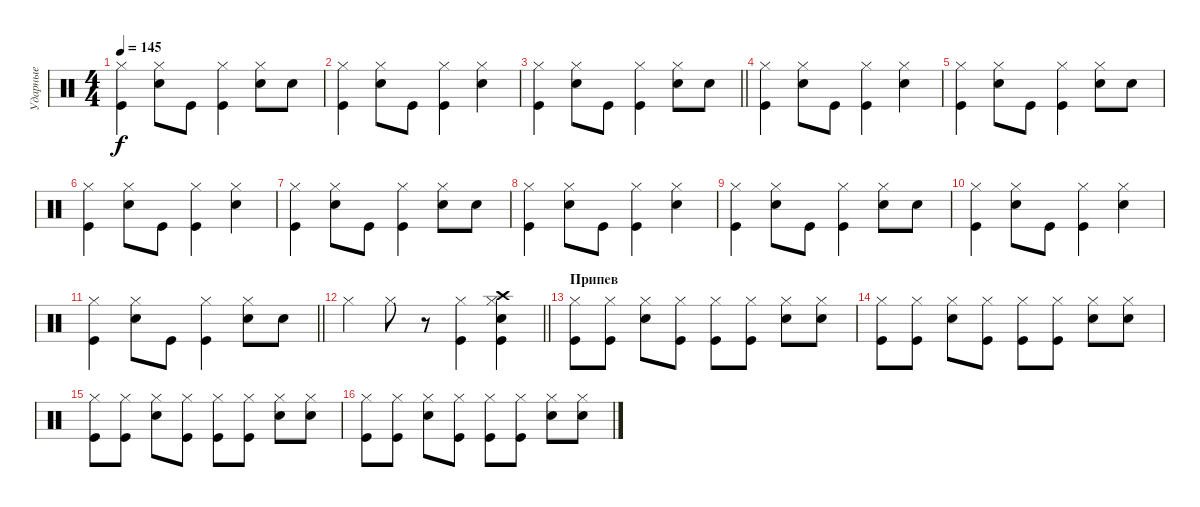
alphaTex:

\track ("Ударные" "Ударные") {instrument percussion bank 125}
\staff {score}
\articulation defaults
\ts (4 4)
\tempo 145
\clef neutral
\ks c
("Hi-Hat (closed)" "Kick (hit)").4{dy f} ("Hi-Hat (closed)" "Snare (hit) 2").8 "Kick (hit)".8 ("Hi-Hat (closed)" "Kick (hit)").4 ("Hi-Hat (closed)" "Snare (hit) 2").8 "Snare (hit) 2".8 |
("Hi-Hat (closed)" "Kick (hit)").4 ("Hi-Hat (closed)" "Snare (hit) 2").8 "Kick (hit)".8 ("Hi-Hat (closed)" "Kick (hit)").4 ("Hi-Hat (closed)" "Snare (hit) 2").4 |
\barLineRight lightlight
("Hi-Hat (closed)" "Kick (hit)").4 ("Hi-Hat (closed)" "Snare (hit) 2").8 "Kick (hit)".8 ("Hi-Hat (closed)" "Kick (hit)").4 ("Hi-Hat (closed)" "Snare (hit) 2").8 "Snare (hit) 2".8 |
("Hi-Hat (closed)" "Kick (hit)").4 ("Hi-Hat (closed)" "Snare (hit) 2").8 "Kick (hit)".8 ("Hi-Hat (closed)" "Kick (hit)").4 ("Hi-Hat (closed)" "Snare (hit) 2").4 |
("Hi-Hat (closed)" "Kick (hit)").4 ("Hi-Hat (closed)" "Snare (hit) 2").8 "Kick (hit)".8 ("Hi-Hat (closed)" "Kick (hit)").4 ("Hi-Hat (closed)" "Snare (hit) 2").8 "Snare (hit) 2".8 |
("Hi-Hat (closed)" "Kick (hit)").4 ("Hi-Hat (closed)" "Snare (hit) 2").8 "Kick (hit)".8 ("Hi-Hat (closed)" "Kick (hit)").4 ("Hi-Hat (closed)" "Snare (hit) 2").4 |
("Hi-Hat (closed)" "Kick (hit)").4 ("Hi-Hat (closed)" "Snare (hit) 2").8 "Kick (hit)".8 ("Hi-Hat (closed)" "Kick (hit)").4 ("Hi-Hat (closed)" "Snare (hit) 2").8 "Snare (hit) 2".8 |
("Hi-Hat (closed)" "Kick (hit)").4 ("Hi-Hat (closed)" "Snare (hit) 2").8 "Kick (hit)".8 ("Hi-Hat (closed)" "Kick (hit)").4 ("Hi-Hat (closed)" "Snare (hit) 2").4 |
("Hi-Hat (closed)" "Kick (hit)").4 ("Hi-Hat (closed)" "Snare (hit) 2").8 "Kick (hit)".8 ("Hi-Hat (closed)" "Kick (hit)").4 ("Hi-Hat (closed)" "Snare (hit) 2").8 "Snare (hit) 2".8 |
("Hi-Hat (closed)" "Kick (hit)").4 ("Hi-Hat (closed)" "Snare (hit) 2").8 "Kick (hit)".8 ("Hi-Hat (closed)" "Kick (hit)").4 ("Hi-Hat (closed)" "Snare (hit) 2").4 |
\barLineRight lightlight
("Hi-Hat (closed)" "Kick (hit)").4 ("Hi-Hat (closed)" "Snare (hit) 2").8 "Kick (hit)".8 ("Hi-Hat (closed)" "Kick (hit)").4 ("Hi-Hat (closed)" "Snare (hit) 2").8 "Snare (hit) 2".8 |
\barLineRight lightlight "Hi-Hat (closed)".4 "Hi-Hat (closed)".8
r.8 ("Hi-Hat (closed)" "Kick (hit)").4 ("Hi-Hat (closed)" "Crash high (hit)" "Snare (hit) 2" "Kick (hit)").4 |
\section ("" "Припев")
("Hi-Hat (closed)" "Kick (hit)").8 ("Hi-Hat (closed)" "Kick (hit)").8 ("Hi-Hat (closed)" "Snare (hit) 2").8 ("Hi-Hat (closed)" "Kick (hit)").8 ("Hi-Hat (closed)" "Kick (hit)").8 ("Hi-Hat (closed)" "Kick (hit)").8 ("Hi-Hat (closed)" "Snare (hit) 2").8 ("Hi-Hat (closed)" "Snare (hit) 2").8 |
("Hi-Hat (closed)" "Kick (hit)").8 ("Hi-Hat (closed)" "Kick (hit)").8 ("Hi-Hat (closed)" "Snare (hit) 2").8 ("Hi-Hat (closed)" "Kick (hit)").8 ("Hi-Hat (closed)" "Kick (hit)").8 ("Hi-Hat (closed)" "Kick (hit)").8 ("Hi-Hat (closed)" "Snare (hit) 2").8 ("Hi-Hat (closed)" "Snare (hit) 2").8 |
("Hi-Hat (closed)" "Kick (hit)").8 ("Hi-Hat (closed)" "Kick (hit)").8 ("Hi-Hat (closed)" "Snare (hit) 2").8 ("Hi-Hat (closed)" "Kick (hit)").8 ("Hi-Hat (closed)" "Kick (hit)").8 ("Hi-Hat (closed)" "Kick (hit)").8 ("Hi-Hat (closed)" "Snare (hit) 2").8 ("Hi-Hat (closed)" "Snare (hit) 2").8 |
("Hi-Hat (closed)" "Kick (hit)").8 ("Hi-Hat (closed)" "Kick (hit)").8 ("Hi-Hat (closed)" "Snare (hit) 2").8 ("Hi-Hat (closed)" "Kick (hit)").8 ("Hi-Hat (closed)" "Kick (hit)").8 ("Hi-Hat (closed)" "Kick (hit)").8 ("Hi-Hat (closed)" "Snare (hit) 2").8 ("Hi-Hat (closed)" "Snare (hit) 2").8
